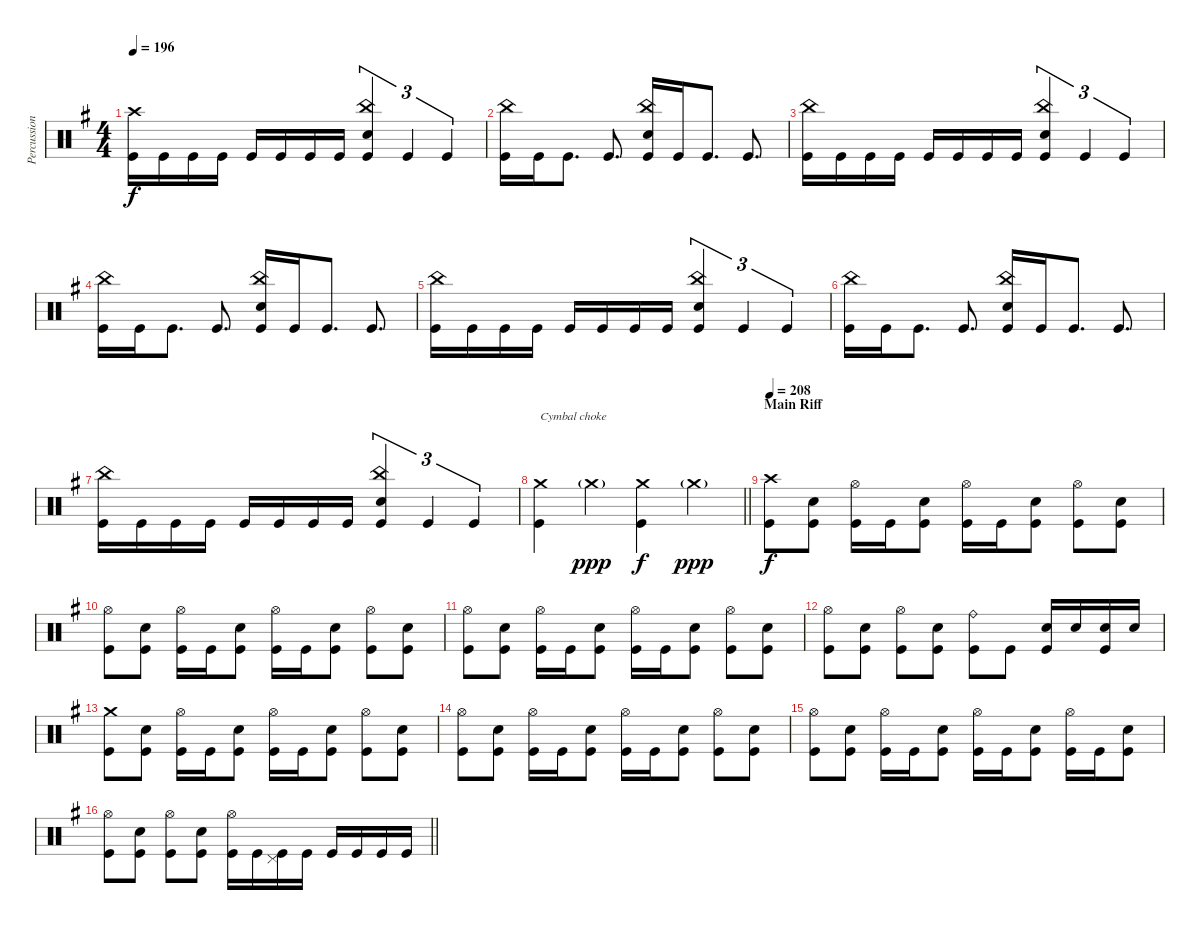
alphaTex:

\track ("Percussion" "Percussion") {instrument percussion}
\staff {score}
\articulation defaults
\ts (4 4)
\tempo 196
\clef neutral
\ks g
("Crash high (hit)" "Kick (hit)").16{dy f} "Kick (hit)".16 "Kick (hit)".16 "Kick (hit)".16 "Kick (hit)".16 "Kick (hit)".16 "Kick (hit)".16 "Kick (hit)".16 ("China (hit)" "Electric Snare (hit)" "Kick (hit)").4{tu (3 2)} "Kick (hit)".4{tu (3 2)} "Kick (hit)".4{tu (3 2)} |
("China (hit)" "Kick (hit)").16 "Kick (hit)".16 "Kick (hit)".8{d} "Kick (hit)".8{d} ("China (hit)" "Electric Snare (hit)" "Kick (hit)").16 "Kick (hit)".16 "Kick (hit)".8{d} "Kick (hit)".8{d} |
("China (hit)" "Kick (hit)").16 "Kick (hit)".16 "Kick (hit)".16 "Kick (hit)".16 "Kick (hit)".16 "Kick (hit)".16 "Kick (hit)".16 "Kick (hit)".16 ("China (hit)" "Electric Snare (hit)" "Kick (hit)").4{tu (3 2)} "Kick (hit)".4{tu (3 2)} "Kick (hit)".4{tu (3 2)} |
("China (hit)" "Kick (hit)").16 "Kick (hit)".16 "Kick (hit)".8{d} "Kick (hit)".8{d} ("China (hit)" "Electric Snare (hit)" "Kick (hit)").16 "Kick (hit)".16 "Kick (hit)".8{d} "Kick (hit)".8{d} |
("China (hit)" "Kick (hit)").16 "Kick (hit)".16 "Kick (hit)".16 "Kick (hit)".16 "Kick (hit)".16 "Kick (hit)".16 "Kick (hit)".16 "Kick (hit)".16 ("China (hit)" "Electric Snare (hit)" "Kick (hit)").4{tu (3 2)} "Kick (hit)".4{tu (3 2)} "Kick (hit)".4{tu (3 2)} |
("China (hit)" "Kick (hit)").16 "Kick (hit)".16 "Kick (hit)".8{d} "Kick (hit)".8{d} ("China (hit)" "Electric Snare (hit)" "Kick (hit)").16 "Kick (hit)".16 "Kick (hit)".8{d} "Kick (hit)".8{d} |
("China (hit)" "Kick (hit)").16 "Kick (hit)".16 "Kick (hit)".16 "Kick (hit)".16 "Kick (hit)".16 "Kick (hit)".16 "Kick (hit)".16 "Kick (hit)".16 ("China (hit)" "Electric Snare (hit)" "Kick (hit)").4{tu (3 2)} "Kick (hit)".4{tu (3 2)} "Kick (hit)".4{tu (3 2)} |
\barLineRight lightlight
("Crash medium (hit)" "Kick (hit)").4{txt "Cymbal choke"} "Crash medium (hit)"{g}.4{dy ppp volume 0} ("Crash medium (hit)" "Kick (hit)").4{dy f volume 10} "Crash medium (hit)"{g}.4{dy ppp volume 0} |
\section ("" "Main Riff")
\tempo 208
("Crash high (hit)" "Kick (hit)").8{dy f volume 10} ("Electric Snare (hit)" "Kick (hit)").8 ("Hi-Hat (open)" "Kick (hit)").16 "Kick (hit)".16 ("Electric Snare (hit)" "Kick (hit)").8 ("Hi-Hat (open)" "Kick (hit)").16 "Kick (hit)".16 ("Electric Snare (hit)" "Kick (hit)").8 ("Hi-Hat (open)" "Kick (hit)").8 ("Electric Snare (hit)" "Kick (hit)").8 |
("Hi-Hat (open)" "Kick (hit)").8 ("Electric Snare (hit)" "Kick (hit)").8 ("Hi-Hat (open)" "Kick (hit)").16 "Kick (hit)".16 ("Electric Snare (hit)" "Kick (hit)").8 ("Hi-Hat (open)" "Kick (hit)").16 "Kick (hit)".16 ("Electric Snare (hit)" "Kick (hit)").8 ("Hi-Hat (open)" "Kick (hit)").8 ("Electric Snare (hit)" "Kick (hit)").8 |
("Hi-Hat (open)" "Kick (hit)").8 ("Electric Snare (hit)" "Kick (hit)").8 ("Hi-Hat (open)" "Kick (hit)").16 "Kick (hit)".16 ("Electric Snare (hit)" "Kick (hit)").8 ("Hi-Hat (open)" "Kick (hit)").16 "Kick (hit)".16 ("Electric Snare (hit)" "Kick (hit)").8 ("Hi-Hat (open)" "Kick (hit)").8 ("Electric Snare (hit)" "Kick (hit)").8 |
("Hi-Hat (open)" "Kick (hit)").8 ("Electric Snare (hit)" "Kick (hit)").8 ("Hi-Hat (open)" "Kick (hit)").8 ("Electric Snare (hit)" "Kick (hit)").8 ("Ride (bell)" "Kick (hit)").8 "Kick (hit)".8 ("Electric Snare (hit)" "Kick (hit)").16 "Electric Snare (hit)".16 ("Electric Snare (hit)" "Kick (hit)").16 "Electric Snare (hit)".16 |
("Crash medium (hit)" "Kick (hit)").8 ("Electric Snare (hit)" "Kick (hit)").8 ("Hi-Hat (open)" "Kick (hit)").16 "Kick (hit)".16 ("Electric Snare (hit)" "Kick (hit)").8 ("Hi-Hat (open)" "Kick (hit)").16 "Kick (hit)".16 ("Electric Snare (hit)" "Kick (hit)").8 ("Hi-Hat (open)" "Kick (hit)").8 ("Electric Snare (hit)" "Kick (hit)").8 |
("Hi-Hat (open)" "Kick (hit)").8 ("Electric Snare (hit)" "Kick (hit)").8 ("Hi-Hat (open)" "Kick (hit)").16 "Kick (hit)".16 ("Electric Snare (hit)" "Kick (hit)").8 ("Hi-Hat (open)" "Kick (hit)").16 "Kick (hit)".16 ("Electric Snare (hit)" "Kick (hit)").8 ("Hi-Hat (open)" "Kick (hit)").8 ("Electric Snare (hit)" "Kick (hit)").8 |
("Hi-Hat (open)" "Kick (hit)").8 ("Electric Snare (hit)" "Kick (hit)").8 ("Hi-Hat (open)" "Kick (hit)").16 "Kick (hit)".16 ("Electric Snare (hit)" "Kick (hit)").8 ("Hi-Hat (open)" "Kick (hit)").16 "Kick (hit)".16 ("Electric Snare (hit)" "Kick (hit)").8 ("Hi-Hat (open)" "Kick (hit)").16 "Kick (hit)".16 ("Electric Snare (hit)" "Kick (hit)").8 |
\barLineRight lightlight
("Hi-Hat (open)" "Kick (hit)").8 ("Electric Snare (hit)" "Kick (hit)").8 ("Hi-Hat (open)" "Kick (hit)").8 ("Electric Snare (hit)" "Kick (hit)").8 ("Hi-Hat (open)" "Kick (hit)").16 "Kick (hit)".16 ("Pedal Hi-Hat (hit)" "Kick (hit)").16 "Kick (hit)".16 "Kick (hit)".16 "Kick (hit)".16 "Kick (hit)".16 "Kick (hit)".16
